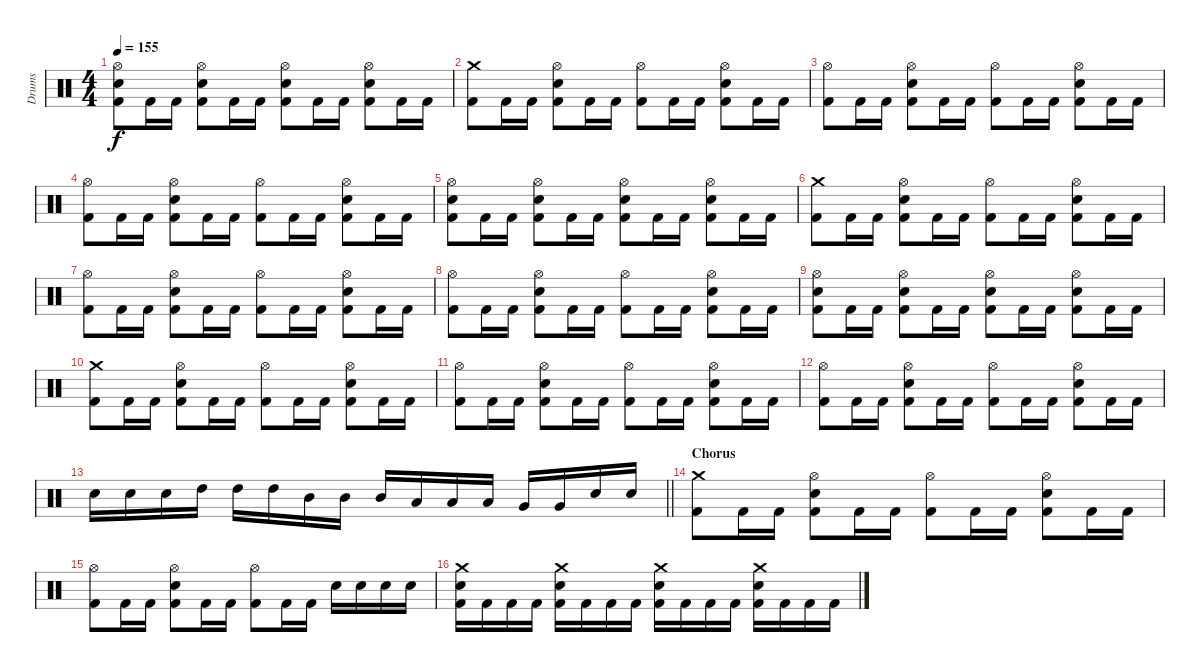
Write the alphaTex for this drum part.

\track ("Drums" "Drums") {instrument percussion}
\staff {score}
\articulation defaults
\ts (4 4)
\tempo 155
\clef neutral
\ks c
("Hi-Hat (open)" "Electric Snare (hit)" "Kick (hit) 2").8{dy f} "Kick (hit) 2".16 "Kick (hit) 2".16 ("Hi-Hat (open)" "Electric Snare (hit)" "Kick (hit) 2").8 "Kick (hit) 2".16 "Kick (hit) 2".16 ("Hi-Hat (open)" "Electric Snare (hit)" "Kick (hit) 2").8 "Kick (hit) 2".16 "Kick (hit) 2".16 ("Hi-Hat (open)" "Electric Snare (hit)" "Kick (hit) 2").8 "Kick (hit) 2".16 "Kick (hit) 2".16 |
("Crash medium (hit)" "Kick (hit) 2").8 "Kick (hit) 2".16 "Kick (hit) 2".16 ("Hi-Hat (open)" "Electric Snare (hit)" "Kick (hit) 2").8 "Kick (hit) 2".16 "Kick (hit) 2".16 ("Hi-Hat (open)" "Kick (hit) 2").8 "Kick (hit) 2".16 "Kick (hit) 2".16 ("Hi-Hat (open)" "Electric Snare (hit)" "Kick (hit) 2").8 "Kick (hit) 2".16 "Kick (hit) 2".16 |
("Hi-Hat (open)" "Kick (hit) 2").8 "Kick (hit) 2".16 "Kick (hit) 2".16 ("Hi-Hat (open)" "Electric Snare (hit)" "Kick (hit) 2").8 "Kick (hit) 2".16 "Kick (hit) 2".16 ("Hi-Hat (open)" "Kick (hit) 2").8 "Kick (hit) 2".16 "Kick (hit) 2".16 ("Hi-Hat (open)" "Electric Snare (hit)" "Kick (hit) 2").8 "Kick (hit) 2".16 "Kick (hit) 2".16 |
("Hi-Hat (open)" "Kick (hit) 2").8 "Kick (hit) 2".16 "Kick (hit) 2".16 ("Hi-Hat (open)" "Electric Snare (hit)" "Kick (hit) 2").8 "Kick (hit) 2".16 "Kick (hit) 2".16 ("Hi-Hat (open)" "Kick (hit) 2").8 "Kick (hit) 2".16 "Kick (hit) 2".16 ("Hi-Hat (open)" "Electric Snare (hit)" "Kick (hit) 2").8 "Kick (hit) 2".16 "Kick (hit) 2".16 |
("Hi-Hat (open)" "Electric Snare (hit)" "Kick (hit) 2").8 "Kick (hit) 2".16 "Kick (hit) 2".16 ("Hi-Hat (open)" "Electric Snare (hit)" "Kick (hit) 2").8 "Kick (hit) 2".16 "Kick (hit) 2".16 ("Hi-Hat (open)" "Electric Snare (hit)" "Kick (hit) 2").8 "Kick (hit) 2".16 "Kick (hit) 2".16 ("Hi-Hat (open)" "Electric Snare (hit)" "Kick (hit) 2").8 "Kick (hit) 2".16 "Kick (hit) 2".16 |
("Crash medium (hit)" "Kick (hit) 2").8 "Kick (hit) 2".16 "Kick (hit) 2".16 ("Hi-Hat (open)" "Electric Snare (hit)" "Kick (hit) 2").8 "Kick (hit) 2".16 "Kick (hit) 2".16 ("Hi-Hat (open)" "Kick (hit) 2").8 "Kick (hit) 2".16 "Kick (hit) 2".16 ("Hi-Hat (open)" "Electric Snare (hit)" "Kick (hit) 2").8 "Kick (hit) 2".16 "Kick (hit) 2".16 |
("Hi-Hat (open)" "Kick (hit) 2").8 "Kick (hit) 2".16 "Kick (hit) 2".16 ("Hi-Hat (open)" "Electric Snare (hit)" "Kick (hit) 2").8 "Kick (hit) 2".16 "Kick (hit) 2".16 ("Hi-Hat (open)" "Kick (hit) 2").8 "Kick (hit) 2".16 "Kick (hit) 2".16 ("Hi-Hat (open)" "Electric Snare (hit)" "Kick (hit) 2").8 "Kick (hit) 2".16 "Kick (hit) 2".16 |
("Hi-Hat (open)" "Kick (hit) 2").8 "Kick (hit) 2".16 "Kick (hit) 2".16 ("Hi-Hat (open)" "Electric Snare (hit)" "Kick (hit) 2").8 "Kick (hit) 2".16 "Kick (hit) 2".16 ("Hi-Hat (open)" "Kick (hit) 2").8 "Kick (hit) 2".16 "Kick (hit) 2".16 ("Hi-Hat (open)" "Electric Snare (hit)" "Kick (hit) 2").8 "Kick (hit) 2".16 "Kick (hit) 2".16 |
("Hi-Hat (open)" "Electric Snare (hit)" "Kick (hit) 2").8 "Kick (hit) 2".16 "Kick (hit) 2".16 ("Hi-Hat (open)" "Electric Snare (hit)" "Kick (hit) 2").8 "Kick (hit) 2".16 "Kick (hit) 2".16 ("Hi-Hat (open)" "Electric Snare (hit)" "Kick (hit) 2").8 "Kick (hit) 2".16 "Kick (hit) 2".16 ("Hi-Hat (open)" "Electric Snare (hit)" "Kick (hit) 2").8 "Kick (hit) 2".16 "Kick (hit) 2".16 |
("Crash medium (hit)" "Kick (hit) 2").8 "Kick (hit) 2".16 "Kick (hit) 2".16 ("Hi-Hat (open)" "Electric Snare (hit)" "Kick (hit) 2").8 "Kick (hit) 2".16 "Kick (hit) 2".16 ("Hi-Hat (open)" "Kick (hit) 2").8 "Kick (hit) 2".16 "Kick (hit) 2".16 ("Hi-Hat (open)" "Electric Snare (hit)" "Kick (hit) 2").8 "Kick (hit) 2".16 "Kick (hit) 2".16 |
("Hi-Hat (open)" "Kick (hit) 2").8 "Kick (hit) 2".16 "Kick (hit) 2".16 ("Hi-Hat (open)" "Electric Snare (hit)" "Kick (hit) 2").8 "Kick (hit) 2".16 "Kick (hit) 2".16 ("Hi-Hat (open)" "Kick (hit) 2").8 "Kick (hit) 2".16 "Kick (hit) 2".16 ("Hi-Hat (open)" "Electric Snare (hit)" "Kick (hit) 2").8 "Kick (hit) 2".16 "Kick (hit) 2".16 |
("Hi-Hat (open)" "Kick (hit) 2").8 "Kick (hit) 2".16 "Kick (hit) 2".16 ("Hi-Hat (open)" "Electric Snare (hit)" "Kick (hit) 2").8 "Kick (hit) 2".16 "Kick (hit) 2".16 ("Hi-Hat (open)" "Kick (hit) 2").8 "Kick (hit) 2".16 "Kick (hit) 2".16 ("Hi-Hat (open)" "Electric Snare (hit)" "Kick (hit) 2").8 "Kick (hit) 2".16 "Kick (hit) 2".16 |
\barLineRight lightlight "Electric Snare (hit)".16 "Electric Snare (hit)".16 "Electric Snare (hit)".16 "High Tom (hit)".16 "High Tom (hit)".16 "High Tom (hit)".16 "Mid Tom (hit)".16 "Mid Tom (hit)".16 "Mid Tom (hit)".16 "Low Tom (hit)".16 "Low Tom (hit)".16 "Low Tom (hit)".16 "Very Low Tom (hit)".16 "Very Low Tom (hit)".16 "Electric Snare (hit)".16 "Electric Snare (hit)".16
|
\section ("" "Chorus")
("Crash medium (hit)" "Kick (hit) 2").8 "Kick (hit) 2".16 "Kick (hit) 2".16 ("Hi-Hat (open)" "Electric Snare (hit)" "Kick (hit) 2").8 "Kick (hit) 2".16 "Kick (hit) 2".16 ("Hi-Hat (open)" "Kick (hit) 2").8 "Kick (hit) 2".16 "Kick (hit) 2".16 ("Hi-Hat (open)" "Electric Snare (hit)" "Kick (hit) 2").8 "Kick (hit) 2".16 "Kick (hit) 2".16 |
("Hi-Hat (open)" "Kick (hit) 2").8 "Kick (hit) 2".16 "Kick (hit) 2".16 ("Hi-Hat (open)" "Electric Snare (hit)" "Kick (hit) 2").8 "Kick (hit) 2".16 "Kick (hit) 2".16 ("Hi-Hat (open)" "Kick (hit) 2").8 "Kick (hit) 2".16 "Kick (hit) 2".16 "Electric Snare (hit)".16 "Electric Snare (hit)".16 "Electric Snare (hit)".16 "Electric Snare (hit)".16 |
("Crash medium (hit)" "Electric Snare (hit)" "Kick (hit) 2").16 "Kick (hit) 2".16 "Kick (hit) 2".16 "Kick (hit) 2".16 ("Crash medium (hit)" "Electric Snare (hit)" "Kick (hit) 2").16 "Kick (hit) 2".16 "Kick (hit) 2".16 "Kick (hit) 2".16 ("Crash medium (hit)" "Electric Snare (hit)" "Kick (hit) 2").16 "Kick (hit) 2".16 "Kick (hit) 2".16 "Kick (hit) 2".16 ("Crash medium (hit)" "Electric Snare (hit)" "Kick (hit) 2").16 "Kick (hit) 2".16 "Kick (hit) 2".16 "Kick (hit) 2".16
